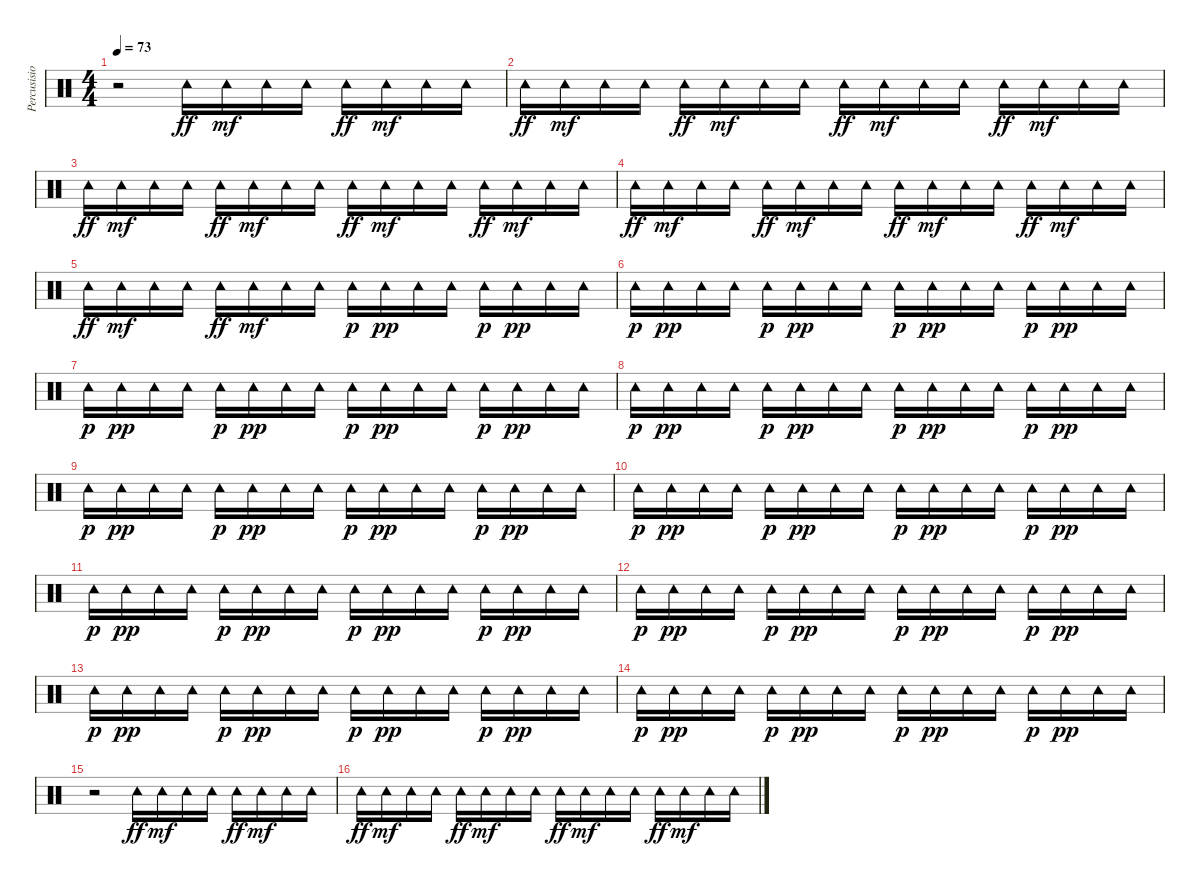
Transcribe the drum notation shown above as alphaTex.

\track ("Percusision" "Percusisio") {instrument percussion}
\staff {score}
\articulation defaults
\ts (4 4)
\tempo 73
\clef neutral
\ks c
r.2{dy ff} "Tambourine (hit)".16 "Tambourine (hit)".16{dy mf} "Tambourine (hit)".16 "Tambourine (hit)".16 "Tambourine (hit)".16{dy ff} "Tambourine (hit)".16{dy mf} "Tambourine (hit)".16 "Tambourine (hit)".16 |
"Tambourine (hit)".16{dy ff} "Tambourine (hit)".16{dy mf} "Tambourine (hit)".16 "Tambourine (hit)".16 "Tambourine (hit)".16{dy ff} "Tambourine (hit)".16{dy mf} "Tambourine (hit)".16 "Tambourine (hit)".16 "Tambourine (hit)".16{dy ff} "Tambourine (hit)".16{dy mf} "Tambourine (hit)".16 "Tambourine (hit)".16 "Tambourine (hit)".16{dy ff} "Tambourine (hit)".16{dy mf} "Tambourine (hit)".16 "Tambourine (hit)".16 |
"Tambourine (hit)".16{dy ff} "Tambourine (hit)".16{dy mf} "Tambourine (hit)".16 "Tambourine (hit)".16 "Tambourine (hit)".16{dy ff} "Tambourine (hit)".16{dy mf} "Tambourine (hit)".16 "Tambourine (hit)".16 "Tambourine (hit)".16{dy ff} "Tambourine (hit)".16{dy mf} "Tambourine (hit)".16 "Tambourine (hit)".16 "Tambourine (hit)".16{dy ff} "Tambourine (hit)".16{dy mf} "Tambourine (hit)".16 "Tambourine (hit)".16 |
"Tambourine (hit)".16{dy ff} "Tambourine (hit)".16{dy mf} "Tambourine (hit)".16 "Tambourine (hit)".16 "Tambourine (hit)".16{dy ff} "Tambourine (hit)".16{dy mf} "Tambourine (hit)".16 "Tambourine (hit)".16 "Tambourine (hit)".16{dy ff} "Tambourine (hit)".16{dy mf} "Tambourine (hit)".16 "Tambourine (hit)".16 "Tambourine (hit)".16{dy ff} "Tambourine (hit)".16{dy mf} "Tambourine (hit)".16 "Tambourine (hit)".16 |
"Tambourine (hit)".16{dy ff} "Tambourine (hit)".16{dy mf} "Tambourine (hit)".16 "Tambourine (hit)".16 "Tambourine (hit)".16{dy ff} "Tambourine (hit)".16{dy mf} "Tambourine (hit)".16 "Tambourine (hit)".16 "Tambourine (hit)".16{dy p} "Tambourine (hit)".16{dy pp} "Tambourine (hit)".16 "Tambourine (hit)".16 "Tambourine (hit)".16{dy p} "Tambourine (hit)".16{dy pp} "Tambourine (hit)".16 "Tambourine (hit)".16 |
"Tambourine (hit)".16{dy p} "Tambourine (hit)".16{dy pp} "Tambourine (hit)".16 "Tambourine (hit)".16 "Tambourine (hit)".16{dy p} "Tambourine (hit)".16{dy pp} "Tambourine (hit)".16 "Tambourine (hit)".16 "Tambourine (hit)".16{dy p} "Tambourine (hit)".16{dy pp} "Tambourine (hit)".16 "Tambourine (hit)".16 "Tambourine (hit)".16{dy p} "Tambourine (hit)".16{dy pp} "Tambourine (hit)".16 "Tambourine (hit)".16 |
"Tambourine (hit)".16{dy p} "Tambourine (hit)".16{dy pp} "Tambourine (hit)".16 "Tambourine (hit)".16 "Tambourine (hit)".16{dy p} "Tambourine (hit)".16{dy pp} "Tambourine (hit)".16 "Tambourine (hit)".16 "Tambourine (hit)".16{dy p} "Tambourine (hit)".16{dy pp} "Tambourine (hit)".16 "Tambourine (hit)".16 "Tambourine (hit)".16{dy p} "Tambourine (hit)".16{dy pp} "Tambourine (hit)".16 "Tambourine (hit)".16 |
"Tambourine (hit)".16{dy p} "Tambourine (hit)".16{dy pp} "Tambourine (hit)".16 "Tambourine (hit)".16 "Tambourine (hit)".16{dy p} "Tambourine (hit)".16{dy pp} "Tambourine (hit)".16 "Tambourine (hit)".16 "Tambourine (hit)".16{dy p} "Tambourine (hit)".16{dy pp} "Tambourine (hit)".16 "Tambourine (hit)".16 "Tambourine (hit)".16{dy p} "Tambourine (hit)".16{dy pp} "Tambourine (hit)".16 "Tambourine (hit)".16 |
"Tambourine (hit)".16{dy p} "Tambourine (hit)".16{dy pp} "Tambourine (hit)".16 "Tambourine (hit)".16 "Tambourine (hit)".16{dy p} "Tambourine (hit)".16{dy pp} "Tambourine (hit)".16 "Tambourine (hit)".16 "Tambourine (hit)".16{dy p} "Tambourine (hit)".16{dy pp} "Tambourine (hit)".16 "Tambourine (hit)".16 "Tambourine (hit)".16{dy p} "Tambourine (hit)".16{dy pp} "Tambourine (hit)".16 "Tambourine (hit)".16 |
"Tambourine (hit)".16{dy p} "Tambourine (hit)".16{dy pp} "Tambourine (hit)".16 "Tambourine (hit)".16 "Tambourine (hit)".16{dy p} "Tambourine (hit)".16{dy pp} "Tambourine (hit)".16 "Tambourine (hit)".16 "Tambourine (hit)".16{dy p} "Tambourine (hit)".16{dy pp} "Tambourine (hit)".16 "Tambourine (hit)".16 "Tambourine (hit)".16{dy p} "Tambourine (hit)".16{dy pp} "Tambourine (hit)".16 "Tambourine (hit)".16 |
"Tambourine (hit)".16{dy p} "Tambourine (hit)".16{dy pp} "Tambourine (hit)".16 "Tambourine (hit)".16 "Tambourine (hit)".16{dy p} "Tambourine (hit)".16{dy pp} "Tambourine (hit)".16 "Tambourine (hit)".16 "Tambourine (hit)".16{dy p} "Tambourine (hit)".16{dy pp} "Tambourine (hit)".16 "Tambourine (hit)".16 "Tambourine (hit)".16{dy p} "Tambourine (hit)".16{dy pp} "Tambourine (hit)".16 "Tambourine (hit)".16 |
"Tambourine (hit)".16{dy p} "Tambourine (hit)".16{dy pp} "Tambourine (hit)".16 "Tambourine (hit)".16 "Tambourine (hit)".16{dy p} "Tambourine (hit)".16{dy pp} "Tambourine (hit)".16 "Tambourine (hit)".16 "Tambourine (hit)".16{dy p} "Tambourine (hit)".16{dy pp} "Tambourine (hit)".16 "Tambourine (hit)".16 "Tambourine (hit)".16{dy p} "Tambourine (hit)".16{dy pp} "Tambourine (hit)".16 "Tambourine (hit)".16 |
"Tambourine (hit)".16{dy p} "Tambourine (hit)".16{dy pp} "Tambourine (hit)".16 "Tambourine (hit)".16 "Tambourine (hit)".16{dy p} "Tambourine (hit)".16{dy pp} "Tambourine (hit)".16 "Tambourine (hit)".16 "Tambourine (hit)".16{dy p} "Tambourine (hit)".16{dy pp} "Tambourine (hit)".16 "Tambourine (hit)".16 "Tambourine (hit)".16{dy p} "Tambourine (hit)".16{dy pp} "Tambourine (hit)".16 "Tambourine (hit)".16 |
"Tambourine (hit)".16{dy p} "Tambourine (hit)".16{dy pp} "Tambourine (hit)".16 "Tambourine (hit)".16 "Tambourine (hit)".16{dy p} "Tambourine (hit)".16{dy pp} "Tambourine (hit)".16 "Tambourine (hit)".16 "Tambourine (hit)".16{dy p} "Tambourine (hit)".16{dy pp} "Tambourine (hit)".16 "Tambourine (hit)".16 "Tambourine (hit)".16{dy p} "Tambourine (hit)".16{dy pp} "Tambourine (hit)".16 "Tambourine (hit)".16 |
r.2 "Tambourine (hit)".16{dy ff} "Tambourine (hit)".16{dy mf} "Tambourine (hit)".16 "Tambourine (hit)".16 "Tambourine (hit)".16{dy ff} "Tambourine (hit)".16{dy mf} "Tambourine (hit)".16 "Tambourine (hit)".16 |
"Tambourine (hit)".16{dy ff} "Tambourine (hit)".16{dy mf} "Tambourine (hit)".16 "Tambourine (hit)".16 "Tambourine (hit)".16{dy ff} "Tambourine (hit)".16{dy mf} "Tambourine (hit)".16 "Tambourine (hit)".16 "Tambourine (hit)".16{dy ff} "Tambourine (hit)".16{dy mf} "Tambourine (hit)".16 "Tambourine (hit)".16 "Tambourine (hit)".16{dy ff} "Tambourine (hit)".16{dy mf} "Tambourine (hit)".16 "Tambourine (hit)".16
